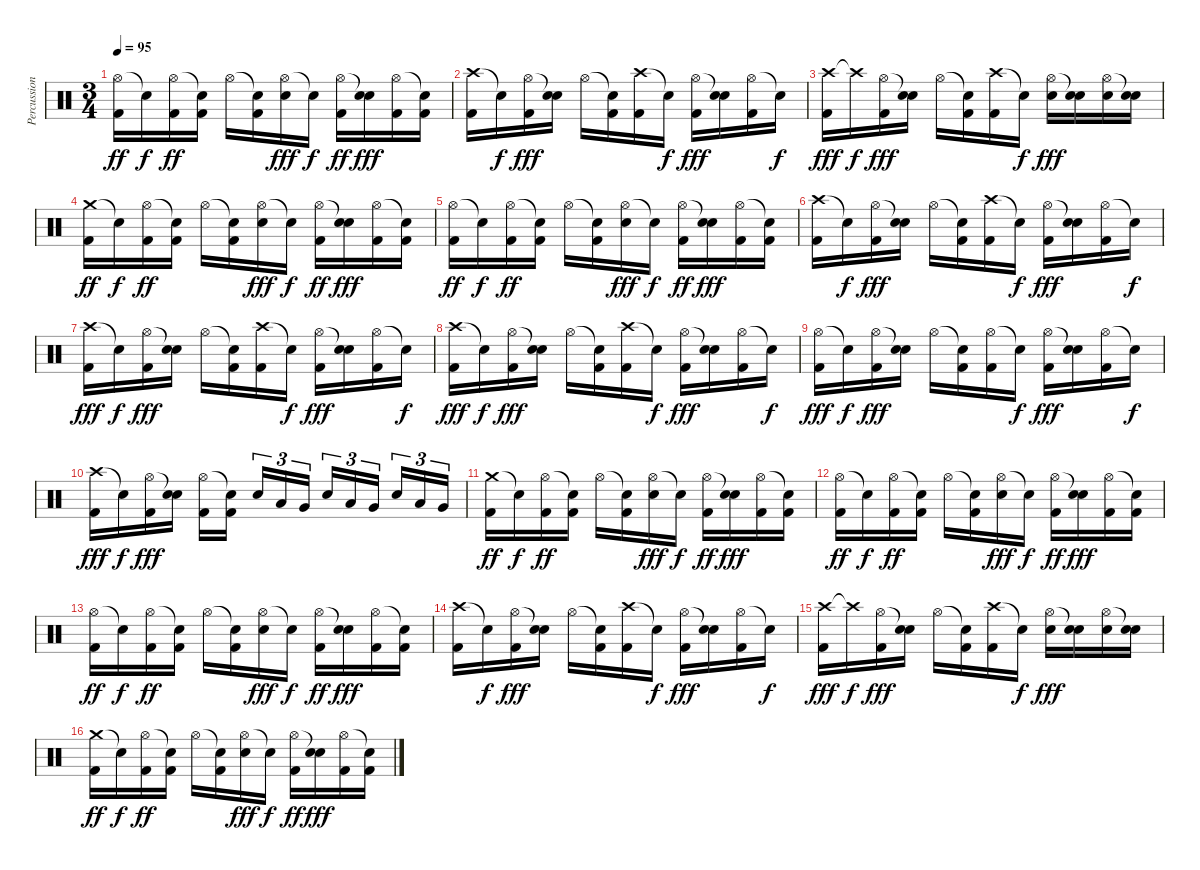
\track ("Percussioni" "Percussion") {instrument percussion}
\staff {score}
\articulation defaults
\ts (3 4)
\tempo 95
\clef neutral
\ks c
("Hi-Hat (open)" "Kick (hit) 2").16{dy ff} "Snare (hit)"{t}.16{dy f} ("Hi-Hat (open)" "Kick (hit) 2").16{dy ff} ("Snare (hit)"{t} "Kick (hit) 2").16 "Hi-Hat (open)".16 ("Snare (hit)"{t} "Kick (hit) 2").16 ("Hi-Hat (open)" "Electric Snare (hit)").16{dy fff} "Snare (hit)"{t}.16{dy f} ("Hi-Hat (open)" "Kick (hit) 2").16{dy ff} ("Snare (hit)"{t} "Electric Snare (hit)").16{dy fff} ("Hi-Hat (open)" "Kick (hit) 2").16 ("Snare (hit)"{t} "Kick (hit) 2").16 |
("Crash high (hit)" "Kick (hit) 2").16 "Snare (hit)"{t}.16{dy f} ("Hi-Hat (open)" "Kick (hit) 2").16{dy fff} ("Snare (hit)"{t} "Electric Snare (hit)").16 "Hi-Hat (open)".16 ("Snare (hit)"{t} "Kick (hit) 2").16 ("Crash high (hit)" "Kick (hit) 2").16 "Snare (hit)"{t}.16{dy f} ("Hi-Hat (open)" "Kick (hit) 2").16{dy fff} ("Snare (hit)"{t} "Electric Snare (hit)").16 ("Hi-Hat (open)" "Kick (hit) 2").16 "Snare (hit)"{t}.16{dy f} |
("Crash high (hit)" "Kick (hit) 2").16{dy fff} "Crash high (hit)"{t}.16{dy f} ("Hi-Hat (open)" "Kick (hit) 2").16{dy fff} ("Snare (hit)"{t} "Electric Snare (hit)").16 "Hi-Hat (open)".16 ("Snare (hit)"{t} "Kick (hit) 2").16 ("Crash high (hit)" "Kick (hit) 2").16 "Snare (hit)"{t}.16{dy f} ("Hi-Hat (open)" "Electric Snare (hit)").16{dy fff} ("Snare (hit)"{t} "Electric Snare (hit)").16 ("Hi-Hat (open)" "Electric Snare (hit)").16 ("Snare (hit)"{t} "Electric Snare (hit)").16 |
("Crash medium (hit)" "Kick (hit) 2").16{dy ff} "Snare (hit)"{t}.16{dy f} ("Hi-Hat (open)" "Kick (hit) 2").16{dy ff} ("Snare (hit)"{t} "Kick (hit) 2").16 "Hi-Hat (open)".16 ("Snare (hit)"{t} "Kick (hit) 2").16 ("Hi-Hat (open)" "Electric Snare (hit)").16{dy fff} "Snare (hit)"{t}.16{dy f} ("Hi-Hat (open)" "Kick (hit) 2").16{dy ff} ("Snare (hit)"{t} "Electric Snare (hit)").16{dy fff} ("Hi-Hat (open)" "Kick (hit) 2").16 ("Snare (hit)"{t} "Kick (hit) 2").16 |
("Hi-Hat (open)" "Kick (hit) 2").16{dy ff} "Snare (hit)"{t}.16{dy f} ("Hi-Hat (open)" "Kick (hit) 2").16{dy ff} ("Snare (hit)"{t} "Kick (hit) 2").16 "Hi-Hat (open)".16 ("Snare (hit)"{t} "Kick (hit) 2").16 ("Hi-Hat (open)" "Electric Snare (hit)").16{dy fff} "Snare (hit)"{t}.16{dy f} ("Hi-Hat (open)" "Kick (hit) 2").16{dy ff} ("Snare (hit)"{t} "Electric Snare (hit)").16{dy fff} ("Hi-Hat (open)" "Kick (hit) 2").16 ("Snare (hit)"{t} "Kick (hit) 2").16 |
("Crash high (hit)" "Kick (hit) 2").16 "Snare (hit)"{t}.16{dy f} ("Hi-Hat (open)" "Kick (hit) 2").16{dy fff} ("Snare (hit)"{t} "Electric Snare (hit)").16 "Hi-Hat (open)".16 ("Snare (hit)"{t} "Kick (hit) 2").16 ("Crash high (hit)" "Kick (hit) 2").16 "Snare (hit)"{t}.16{dy f} ("Hi-Hat (open)" "Kick (hit) 2").16{dy fff} ("Snare (hit)"{t} "Electric Snare (hit)").16 ("Hi-Hat (open)" "Kick (hit) 2").16 "Snare (hit)"{t}.16{dy f} |
("Crash high (hit)" "Kick (hit) 2").16{dy fff} "Snare (hit)"{t}.16{dy f} ("Hi-Hat (open)" "Kick (hit) 2").16{dy fff} ("Snare (hit)"{t} "Electric Snare (hit)").16 "Hi-Hat (open)".16 ("Snare (hit)"{t} "Kick (hit) 2").16 ("Crash high (hit)" "Kick (hit) 2").16 "Snare (hit)"{t}.16{dy f} ("Hi-Hat (open)" "Kick (hit) 2").16{dy fff} ("Snare (hit)"{t} "Electric Snare (hit)").16 ("Hi-Hat (open)" "Kick (hit) 2").16 "Snare (hit)"{t}.16{dy f} |
("Crash high (hit)" "Kick (hit) 2").16{dy fff} "Snare (hit)"{t}.16{dy f} ("Hi-Hat (open)" "Kick (hit) 2").16{dy fff} ("Snare (hit)"{t} "Electric Snare (hit)").16 "Hi-Hat (open)".16 ("Snare (hit)"{t} "Kick (hit) 2").16 ("Crash high (hit)" "Kick (hit) 2").16 "Snare (hit)"{t}.16{dy f} ("Hi-Hat (open)" "Kick (hit) 2").16{dy fff} ("Snare (hit)"{t} "Electric Snare (hit)").16 ("Hi-Hat (open)" "Kick (hit) 2").16 "Snare (hit)"{t}.16{dy f} |
("Hi-Hat (open)" "Kick (hit) 2").16{dy fff} "Snare (hit)"{t}.16{dy f} ("Hi-Hat (open)" "Kick (hit) 2").16{dy fff} ("Snare (hit)"{t} "Electric Snare (hit)").16 "Hi-Hat (open)".16 ("Snare (hit)"{t} "Kick (hit) 2").16 ("Hi-Hat (open)" "Kick (hit) 2").16 "Snare (hit)"{t}.16{dy f} ("Hi-Hat (open)" "Kick (hit) 2").16{dy fff} ("Snare (hit)"{t} "Electric Snare (hit)").16 ("Hi-Hat (open)" "Kick (hit) 2").16 "Snare (hit)"{t}.16{dy f} |
("Crash high (hit)" "Kick (hit) 2").16{dy fff} "Snare (hit)"{t}.16{dy f} ("Hi-Hat (open)" "Kick (hit) 2").16{dy fff} ("Snare (hit)"{t} "Electric Snare (hit)").16 ("Hi-Hat (open)" "Kick (hit) 2").16 ("Snare (hit)"{t} "Kick (hit) 2").16{beam splitsecondary} "Electric Snare (hit)".16{tu (3 2)} "Low Tom (hit)".16{tu (3 2)} "Very Low Tom (hit)".16{tu (3 2)} "Electric Snare (hit)".16{tu (3 2)} "Low Tom (hit)".16{tu (3 2)} "Very Low Tom (hit)".16{tu (3 2) beam splitsecondary} "Electric Snare (hit)".16{tu (3 2)} "Low Tom (hit)".16{tu (3 2)} "Very Low Tom (hit)".16{tu (3 2)} |
("Crash medium (hit)" "Kick (hit) 2").16{dy ff} "Snare (hit)"{t}.16{dy f} ("Hi-Hat (open)" "Kick (hit) 2").16{dy ff} ("Snare (hit)"{t} "Kick (hit) 2").16 "Hi-Hat (open)".16 ("Snare (hit)"{t} "Kick (hit) 2").16 ("Hi-Hat (open)" "Electric Snare (hit)").16{dy fff} "Snare (hit)"{t}.16{dy f} ("Hi-Hat (open)" "Kick (hit) 2").16{dy ff} ("Snare (hit)"{t} "Electric Snare (hit)").16{dy fff} ("Hi-Hat (open)" "Kick (hit) 2").16 ("Snare (hit)"{t} "Kick (hit) 2").16 |
("Hi-Hat (open)" "Kick (hit) 2").16{dy ff} "Snare (hit)"{t}.16{dy f} ("Hi-Hat (open)" "Kick (hit) 2").16{dy ff} ("Snare (hit)"{t} "Kick (hit) 2").16 "Hi-Hat (open)".16 ("Snare (hit)"{t} "Kick (hit) 2").16 ("Hi-Hat (open)" "Electric Snare (hit)").16{dy fff} "Snare (hit)"{t}.16{dy f} ("Hi-Hat (open)" "Kick (hit) 2").16{dy ff} ("Snare (hit)"{t} "Electric Snare (hit)").16{dy fff} ("Hi-Hat (open)" "Kick (hit) 2").16 ("Snare (hit)"{t} "Kick (hit) 2").16 |
("Hi-Hat (open)" "Kick (hit) 2").16{dy ff} "Snare (hit)"{t}.16{dy f} ("Hi-Hat (open)" "Kick (hit) 2").16{dy ff} ("Snare (hit)"{t} "Kick (hit) 2").16 "Hi-Hat (open)".16 ("Snare (hit)"{t} "Kick (hit) 2").16 ("Hi-Hat (open)" "Electric Snare (hit)").16{dy fff} "Snare (hit)"{t}.16{dy f} ("Hi-Hat (open)" "Kick (hit) 2").16{dy ff} ("Snare (hit)"{t} "Electric Snare (hit)").16{dy fff} ("Hi-Hat (open)" "Kick (hit) 2").16 ("Snare (hit)"{t} "Kick (hit) 2").16 |
("Crash high (hit)" "Kick (hit) 2").16 "Snare (hit)"{t}.16{dy f} ("Hi-Hat (open)" "Kick (hit) 2").16{dy fff} ("Snare (hit)"{t} "Electric Snare (hit)").16 "Hi-Hat (open)".16 ("Snare (hit)"{t} "Kick (hit) 2").16 ("Crash high (hit)" "Kick (hit) 2").16 "Snare (hit)"{t}.16{dy f} ("Hi-Hat (open)" "Kick (hit) 2").16{dy fff} ("Snare (hit)"{t} "Electric Snare (hit)").16 ("Hi-Hat (open)" "Kick (hit) 2").16 "Snare (hit)"{t}.16{dy f} |
("Crash high (hit)" "Kick (hit) 2").16{dy fff} "Crash high (hit)"{t}.16{dy f} ("Hi-Hat (open)" "Kick (hit) 2").16{dy fff} ("Snare (hit)"{t} "Electric Snare (hit)").16 "Hi-Hat (open)".16 ("Snare (hit)"{t} "Kick (hit) 2").16 ("Crash high (hit)" "Kick (hit) 2").16 "Snare (hit)"{t}.16{dy f} ("Hi-Hat (open)" "Electric Snare (hit)").16{dy fff} ("Snare (hit)"{t} "Electric Snare (hit)").16 ("Hi-Hat (open)" "Electric Snare (hit)").16 ("Snare (hit)"{t} "Electric Snare (hit)").16 |
("Crash medium (hit)" "Kick (hit) 2").16{dy ff} "Snare (hit)"{t}.16{dy f} ("Hi-Hat (open)" "Kick (hit) 2").16{dy ff} ("Snare (hit)"{t} "Kick (hit) 2").16 "Hi-Hat (open)".16 ("Snare (hit)"{t} "Kick (hit) 2").16 ("Hi-Hat (open)" "Electric Snare (hit)").16{dy fff} "Snare (hit)"{t}.16{dy f} ("Hi-Hat (open)" "Kick (hit) 2").16{dy ff} ("Snare (hit)"{t} "Electric Snare (hit)").16{dy fff} ("Hi-Hat (open)" "Kick (hit) 2").16 ("Snare (hit)"{t} "Kick (hit) 2").16
